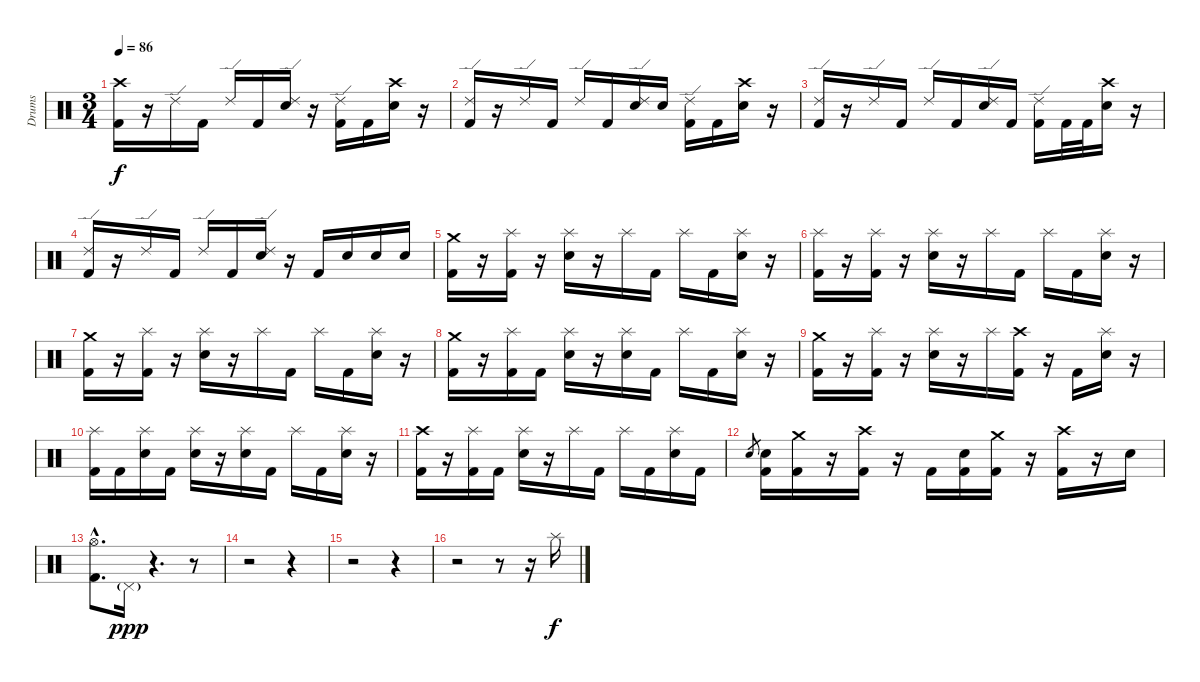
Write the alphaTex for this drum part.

\track ("Drums" "Drums") {instrument percussion}
\staff {score}
\articulation defaults
\ts (3 4)
\tempo 86
\clef neutral
\ks c
("Crash high (hit)" "Kick (hit) 2").16{dy f} r.16 "Ride (edge) 2".16 "Kick (hit) 2".16 "Ride (edge) 2".16 "Kick (hit) 2".16 ("Ride (edge) 2" "Electric Snare (hit)").16 r.16 ("Ride (edge) 2" "Kick (hit) 2").16 "Kick (hit) 2".16 ("Crash high (hit)" "Electric Snare (hit)").16 r.16 |
("Ride (edge) 2" "Kick (hit) 2").16 r.16 "Ride (edge) 2".16 "Kick (hit) 2".16 "Ride (edge) 2".16 "Kick (hit) 2".16 ("Ride (edge) 2" "Electric Snare (hit)").16 "Electric Snare (hit)".16 ("Ride (edge) 2" "Kick (hit) 2").16 "Kick (hit) 2".16 ("Crash high (hit)" "Electric Snare (hit)").16 r.16 |
("Ride (edge) 2" "Kick (hit) 2").16 r.16 "Ride (edge) 2".16 "Kick (hit) 2".16 "Ride (edge) 2".16 "Kick (hit) 2".16 ("Ride (edge) 2" "Electric Snare (hit)").16 "Kick (hit) 2".16 ("Ride (edge) 2" "Kick (hit) 2").16 "Kick (hit) 2".32 "Kick (hit) 2".32 ("Crash high (hit)" "Electric Snare (hit)").16 r.16 |
("Ride (edge) 2" "Kick (hit) 2").16 r.16 "Ride (edge) 2".16 "Kick (hit) 2".16 "Ride (edge) 2".16 "Kick (hit) 2".16 ("Ride (edge) 2" "Electric Snare (hit)").16 r.16 "Kick (hit) 2".16 "Electric Snare (hit)".16 "Electric Snare (hit)".16 "Electric Snare (hit)".16 |
("Crash medium (hit)" "Kick (hit) 2").16 r.16 ("Splash (hit)" "Kick (hit) 2").16 r.16 ("Splash (hit)" "Electric Snare (hit)").16 r.16 "Splash (hit)".16 "Kick (hit) 2".16 "Splash (hit)".16 "Kick (hit) 2".16 ("Splash (hit)" "Electric Snare (hit)").16 r.16 |
("Splash (hit)" "Kick (hit) 2").16 r.16 ("Splash (hit)" "Kick (hit) 2").16 r.16 ("Splash (hit)" "Electric Snare (hit)").16 r.16 "Splash (hit)".16 "Kick (hit) 2".16 "Splash (hit)".16 "Kick (hit) 2".16 ("Splash (hit)" "Electric Snare (hit)").16 r.16 |
("Crash medium (hit)" "Kick (hit) 2").16 r.16 ("Splash (hit)" "Kick (hit) 2").16 r.16 ("Splash (hit)" "Electric Snare (hit)").16 r.16 "Splash (hit)".16 "Kick (hit) 2".16 "Splash (hit)".16 "Kick (hit) 2".16 ("Splash (hit)" "Electric Snare (hit)").16 r.16 |
("Crash medium (hit)" "Kick (hit) 2").16 r.16 ("Splash (hit)" "Kick (hit) 2").16 "Kick (hit) 2".16 ("Splash (hit)" "Electric Snare (hit)").16 r.16 ("Splash (hit)" "Electric Snare (hit)").16 "Kick (hit) 2".16 "Splash (hit)".16 "Kick (hit) 2".16 ("Splash (hit)" "Electric Snare (hit)").16 r.16 |
("Crash medium (hit)" "Kick (hit) 2").16 r.16 ("Splash (hit)" "Kick (hit) 2").16 r.16 ("Splash (hit)" "Electric Snare (hit)").16 r.16 "Splash (hit)".16 ("Crash high (hit)" "Kick (hit) 2").16 r.16 "Kick (hit) 2".16 ("Splash (hit)" "Electric Snare (hit)").16 r.16 |
("Splash (hit)" "Kick (hit) 2").16 "Kick (hit) 2".16 ("Splash (hit)" "Electric Snare (hit)").16 "Kick (hit) 2".16 ("Splash (hit)" "Electric Snare (hit)").16 r.16 ("Splash (hit)" "Electric Snare (hit)").16 "Kick (hit) 2".16 "Splash (hit)".16 "Kick (hit) 2".16 ("Splash (hit)" "Electric Snare (hit)").16 r.16 |
("Crash high (hit)" "Kick (hit) 2").16 r.16 ("Splash (hit)" "Kick (hit) 2").16 "Kick (hit) 2".16 ("Splash (hit)" "Electric Snare (hit)").16 r.16 "Splash (hit)".16 "Kick (hit) 2".16 "Splash (hit)".16 "Kick (hit) 2".16 ("Splash (hit)" "Electric Snare (hit)").16 "Kick (hit) 2".16 |
"Electric Snare (hit)".8{gr} ("Electric Snare (hit)" "Kick (hit) 2").16 ("Crash medium (hit)" "Kick (hit) 2").16 r.16 ("Crash high (hit)" "Kick (hit) 2").16 r.16 "Kick (hit) 2".16 ("Electric Snare (hit)" "Kick (hit) 2").16 ("Crash medium (hit)" "Kick (hit) 2").16 r.16 ("Crash high (hit)" "Kick (hit) 2").16 r.16 "Electric Snare (hit)".16 |
("Hi-Hat (open)"{hac} "Kick (hit) 2"{hac}).8{d} "Pedal Hi-Hat (hit)"{g}.16{dy ppp} r.4{d} r.8 |
r.2 r.4 |
r.2 r.4 |
r.2 r.8 r.16 "Splash (hit)".16{dy f}
